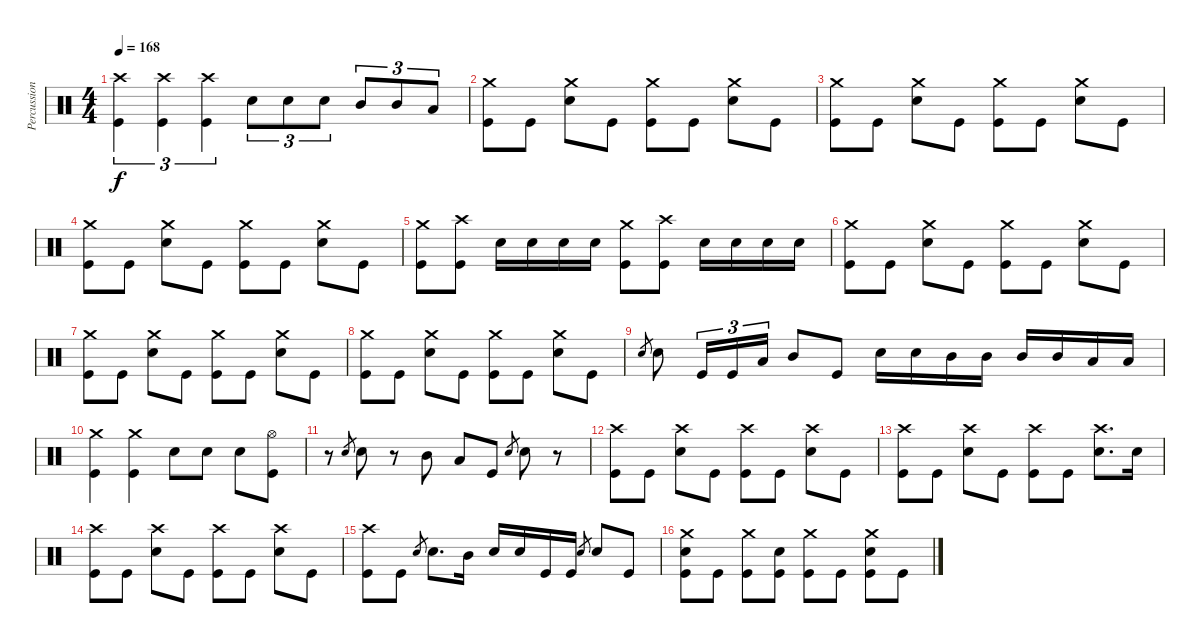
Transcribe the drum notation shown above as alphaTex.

\track ("Percussion" "Percussion") {instrument percussion}
\staff {score}
\articulation defaults
\ts (4 4)
\tempo 168
\clef neutral
\ks c
("Crash high (hit)" "Kick (hit)").4{tu (3 2) dy f} ("Crash high (hit)" "Kick (hit)").4{tu (3 2)} ("Crash high (hit)" "Kick (hit)").4{tu (3 2)} "Electric Snare (hit)".8{tu (3 2)} "Electric Snare (hit)".8{tu (3 2)} "Electric Snare (hit)".8{tu (3 2)} "Mid Tom (hit)".8{tu (3 2)} "Mid Tom (hit)".8{tu (3 2)} "Low Tom (hit)".8{tu (3 2)} |
("Crash medium (hit)" "Kick (hit)").8 "Kick (hit)".8 ("Crash medium (hit)" "Electric Snare (hit)").8 "Kick (hit)".8 ("Crash medium (hit)" "Kick (hit)").8 "Kick (hit)".8 ("Crash medium (hit)" "Electric Snare (hit)").8 "Kick (hit)".8 |
("Crash medium (hit)" "Kick (hit)").8 "Kick (hit)".8 ("Crash medium (hit)" "Electric Snare (hit)").8 "Kick (hit)".8 ("Crash medium (hit)" "Kick (hit)").8 "Kick (hit)".8 ("Crash medium (hit)" "Electric Snare (hit)").8 "Kick (hit)".8 |
("Crash medium (hit)" "Kick (hit)").8 "Kick (hit)".8 ("Crash medium (hit)" "Electric Snare (hit)").8 "Kick (hit)".8 ("Crash medium (hit)" "Kick (hit)").8 "Kick (hit)".8 ("Crash medium (hit)" "Electric Snare (hit)").8 "Kick (hit)".8 |
("Crash medium (hit)" "Kick (hit)").8 ("Crash high (hit)" "Kick (hit)").8 "Electric Snare (hit)".16 "Electric Snare (hit)".16 "Electric Snare (hit)".16 "Electric Snare (hit)".16 ("Crash medium (hit)" "Kick (hit)").8 ("Crash high (hit)" "Kick (hit)").8 "Electric Snare (hit)".16 "Electric Snare (hit)".16 "Electric Snare (hit)".16 "Electric Snare (hit)".16 |
("Crash medium (hit)" "Kick (hit)").8 "Kick (hit)".8 ("Crash medium (hit)" "Electric Snare (hit)").8 "Kick (hit)".8 ("Crash medium (hit)" "Kick (hit)").8 "Kick (hit)".8 ("Crash medium (hit)" "Electric Snare (hit)").8 "Kick (hit)".8 |
("Crash medium (hit)" "Kick (hit)").8 "Kick (hit)".8 ("Crash medium (hit)" "Electric Snare (hit)").8 "Kick (hit)".8 ("Crash medium (hit)" "Kick (hit)").8 "Kick (hit)".8 ("Crash medium (hit)" "Electric Snare (hit)").8 "Kick (hit)".8 |
("Crash medium (hit)" "Kick (hit)").8 "Kick (hit)".8 ("Crash medium (hit)" "Electric Snare (hit)").8 "Kick (hit)".8 ("Crash medium (hit)" "Kick (hit)").8 "Kick (hit)".8 ("Crash medium (hit)" "Electric Snare (hit)").8 "Kick (hit)".8 |
"Electric Snare (hit)".8{gr} "Electric Snare (hit)".8 "Kick (hit)".16{tu (3 2)} "Kick (hit)".16{tu (3 2)} "Low Tom (hit)".16{tu (3 2)} "Mid Tom (hit)".8 "Kick (hit)".8 "Electric Snare (hit)".16 "Electric Snare (hit)".16 "Mid Tom (hit)".16 "Mid Tom (hit)".16 "Mid Tom (hit)".16 "Mid Tom (hit)".16 "Low Tom (hit)".16 "Low Tom (hit)".16 |
("Crash medium (hit)" "Kick (hit)").4 ("Crash medium (hit)" "Kick (hit)").4 "Electric Snare (hit)".8 "Electric Snare (hit)".8 "Electric Snare (hit)".8 ("Hi-Hat (open)" "Kick (hit)").8 |
r.8 "Electric Snare (hit)".8{gr} "Electric Snare (hit)".8 r.8 "Mid Tom (hit)".8 "Low Tom (hit)".8 "Kick (hit)".8 "Electric Snare (hit)".8{gr} "Electric Snare (hit)".8 r.8 |
("Crash high (hit)" "Kick (hit)").8 "Kick (hit)".8 ("Crash high (hit)" "Electric Snare (hit)").8 "Kick (hit)".8 ("Crash high (hit)" "Kick (hit)").8 "Kick (hit)".8 ("Crash high (hit)" "Electric Snare (hit)").8 "Kick (hit)".8 |
("Crash high (hit)" "Kick (hit)").8 "Kick (hit)".8 ("Crash high (hit)" "Electric Snare (hit)").8 "Kick (hit)".8 ("Crash high (hit)" "Kick (hit)").8 "Kick (hit)".8 ("Crash high (hit)" "Electric Snare (hit)").8{d} "Electric Snare (hit)".16 |
("Crash high (hit)" "Kick (hit)").8 "Kick (hit)".8 ("Crash high (hit)" "Electric Snare (hit)").8 "Kick (hit)".8 ("Crash high (hit)" "Kick (hit)").8 "Kick (hit)".8 ("Crash high (hit)" "Electric Snare (hit)").8 "Kick (hit)".8 |
("Crash high (hit)" "Kick (hit)").8 "Kick (hit)".8 "Electric Snare (hit)".8{gr} "Electric Snare (hit)".8{d} "Mid Tom (hit)".16 "Electric Snare (hit)".16 "Electric Snare (hit)".16 "Kick (hit)".16 "Kick (hit)".16 "Electric Snare (hit)".8{gr} "Electric Snare (hit)".8 "Kick (hit)".8 |
("Crash medium (hit)" "Electric Snare (hit)" "Kick (hit)").8 "Kick (hit)".8 ("Crash medium (hit)" "Kick (hit)").8 ("Electric Snare (hit)" "Kick (hit)").8 ("Crash medium (hit)" "Kick (hit)").8 "Kick (hit)".8 ("Crash medium (hit)" "Electric Snare (hit)" "Kick (hit)").8 "Kick (hit)".8
